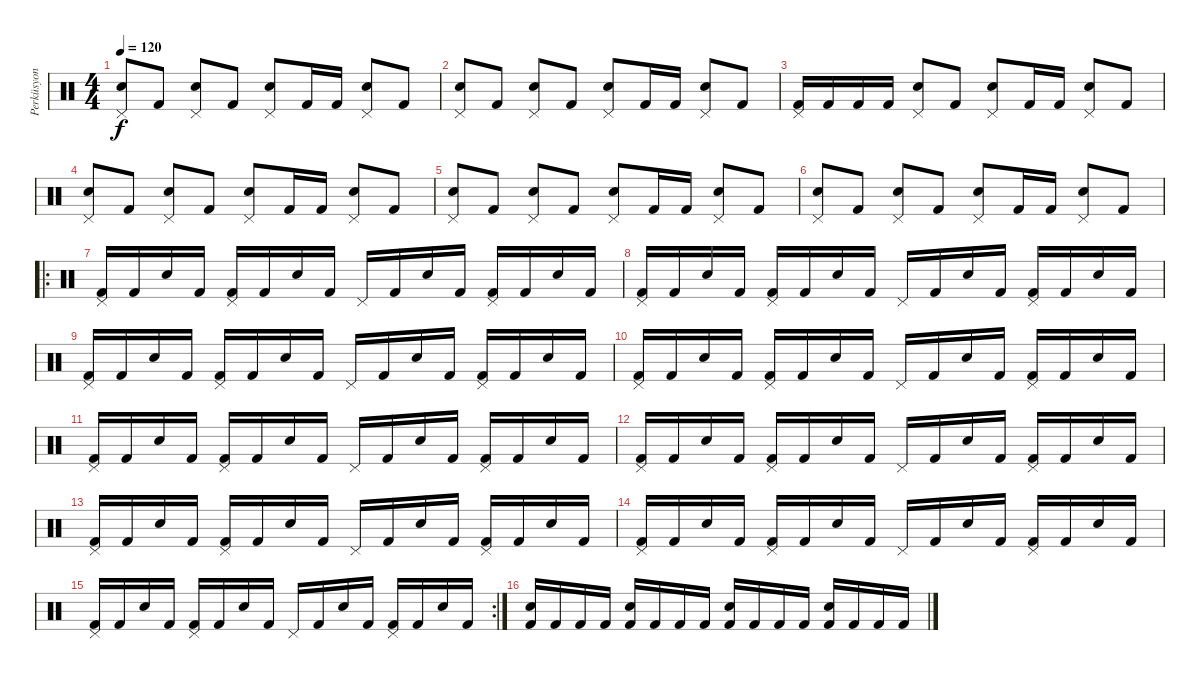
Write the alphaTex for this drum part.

\track ("Perküsyon" "Perküsyon") {instrument percussion}
\staff {score}
\articulation defaults
\ts (4 4)
\tempo 120
\clef neutral
\ks c
("Pedal Hi-Hat (hit)" "Electric Snare (hit)").8{dy f} "Kick (hit) 2".8 ("Pedal Hi-Hat (hit)" "Electric Snare (hit)").8 "Kick (hit) 2".8 ("Pedal Hi-Hat (hit)" "Electric Snare (hit)").8 "Kick (hit) 2".16 "Kick (hit) 2".16 ("Pedal Hi-Hat (hit)" "Electric Snare (hit)").8 "Kick (hit) 2".8 |
("Pedal Hi-Hat (hit)" "Electric Snare (hit)").8 "Kick (hit) 2".8 ("Pedal Hi-Hat (hit)" "Electric Snare (hit)").8 "Kick (hit) 2".8 ("Pedal Hi-Hat (hit)" "Electric Snare (hit)").8 "Kick (hit) 2".16 "Kick (hit) 2".16 ("Pedal Hi-Hat (hit)" "Electric Snare (hit)").8 "Kick (hit) 2".8 |
("Pedal Hi-Hat (hit)" "Kick (hit) 2").16 "Kick (hit) 2".16 "Kick (hit) 2".16 "Kick (hit) 2".16 ("Pedal Hi-Hat (hit)" "Electric Snare (hit)").8 "Kick (hit) 2".8 ("Pedal Hi-Hat (hit)" "Electric Snare (hit)").8 "Kick (hit) 2".16 "Kick (hit) 2".16 ("Pedal Hi-Hat (hit)" "Electric Snare (hit)").8 "Kick (hit) 2".8 |
("Pedal Hi-Hat (hit)" "Electric Snare (hit)").8 "Kick (hit) 2".8 ("Pedal Hi-Hat (hit)" "Electric Snare (hit)").8 "Kick (hit) 2".8 ("Pedal Hi-Hat (hit)" "Electric Snare (hit)").8 "Kick (hit) 2".16 "Kick (hit) 2".16 ("Pedal Hi-Hat (hit)" "Electric Snare (hit)").8 "Kick (hit) 2".8 |
("Pedal Hi-Hat (hit)" "Electric Snare (hit)").8 "Kick (hit) 2".8 ("Pedal Hi-Hat (hit)" "Electric Snare (hit)").8 "Kick (hit) 2".8 ("Pedal Hi-Hat (hit)" "Electric Snare (hit)").8 "Kick (hit) 2".16 "Kick (hit) 2".16 ("Pedal Hi-Hat (hit)" "Electric Snare (hit)").8 "Kick (hit) 2".8 |
("Pedal Hi-Hat (hit)" "Electric Snare (hit)").8 "Kick (hit) 2".8 ("Pedal Hi-Hat (hit)" "Electric Snare (hit)").8 "Kick (hit) 2".8 ("Pedal Hi-Hat (hit)" "Electric Snare (hit)").8 "Kick (hit) 2".16 "Kick (hit) 2".16 ("Pedal Hi-Hat (hit)" "Electric Snare (hit)").8 "Kick (hit) 2".8 |
\ro
("Pedal Hi-Hat (hit)" "Kick (hit) 2").16 "Kick (hit) 2".16 "Electric Snare (hit)".16 "Kick (hit) 2".16 ("Pedal Hi-Hat (hit)" "Kick (hit) 2").16 "Kick (hit) 2".16 "Electric Snare (hit)".16 "Kick (hit) 2".16 "Pedal Hi-Hat (hit)".16 "Kick (hit) 2".16 "Electric Snare (hit)".16 "Kick (hit) 2".16 ("Pedal Hi-Hat (hit)" "Kick (hit) 2").16 "Kick (hit) 2".16 "Electric Snare (hit)".16 "Kick (hit) 2".16 |
("Pedal Hi-Hat (hit)" "Kick (hit) 2").16 "Kick (hit) 2".16 "Electric Snare (hit)".16 "Kick (hit) 2".16 ("Pedal Hi-Hat (hit)" "Kick (hit) 2").16 "Kick (hit) 2".16 "Electric Snare (hit)".16 "Kick (hit) 2".16 "Pedal Hi-Hat (hit)".16 "Kick (hit) 2".16 "Electric Snare (hit)".16 "Kick (hit) 2".16 ("Pedal Hi-Hat (hit)" "Kick (hit) 2").16 "Kick (hit) 2".16 "Electric Snare (hit)".16 "Kick (hit) 2".16 |
("Pedal Hi-Hat (hit)" "Kick (hit) 2").16 "Kick (hit) 2".16 "Electric Snare (hit)".16 "Kick (hit) 2".16 ("Pedal Hi-Hat (hit)" "Kick (hit) 2").16 "Kick (hit) 2".16 "Electric Snare (hit)".16 "Kick (hit) 2".16 "Pedal Hi-Hat (hit)".16 "Kick (hit) 2".16 "Electric Snare (hit)".16 "Kick (hit) 2".16 ("Pedal Hi-Hat (hit)" "Kick (hit) 2").16 "Kick (hit) 2".16 "Electric Snare (hit)".16 "Kick (hit) 2".16 |
("Pedal Hi-Hat (hit)" "Kick (hit) 2").16 "Kick (hit) 2".16 "Electric Snare (hit)".16 "Kick (hit) 2".16 ("Pedal Hi-Hat (hit)" "Kick (hit) 2").16 "Kick (hit) 2".16 "Electric Snare (hit)".16 "Kick (hit) 2".16 "Pedal Hi-Hat (hit)".16 "Kick (hit) 2".16 "Electric Snare (hit)".16 "Kick (hit) 2".16 ("Pedal Hi-Hat (hit)" "Kick (hit) 2").16 "Kick (hit) 2".16 "Electric Snare (hit)".16 "Kick (hit) 2".16 |
("Pedal Hi-Hat (hit)" "Kick (hit) 2").16 "Kick (hit) 2".16 "Electric Snare (hit)".16 "Kick (hit) 2".16 ("Pedal Hi-Hat (hit)" "Kick (hit) 2").16 "Kick (hit) 2".16 "Electric Snare (hit)".16 "Kick (hit) 2".16 "Pedal Hi-Hat (hit)".16 "Kick (hit) 2".16 "Electric Snare (hit)".16 "Kick (hit) 2".16 ("Pedal Hi-Hat (hit)" "Kick (hit) 2").16 "Kick (hit) 2".16 "Electric Snare (hit)".16 "Kick (hit) 2".16 |
("Pedal Hi-Hat (hit)" "Kick (hit) 2").16 "Kick (hit) 2".16 "Electric Snare (hit)".16 "Kick (hit) 2".16 ("Pedal Hi-Hat (hit)" "Kick (hit) 2").16 "Kick (hit) 2".16 "Electric Snare (hit)".16 "Kick (hit) 2".16 "Pedal Hi-Hat (hit)".16 "Kick (hit) 2".16 "Electric Snare (hit)".16 "Kick (hit) 2".16 ("Pedal Hi-Hat (hit)" "Kick (hit) 2").16 "Kick (hit) 2".16 "Electric Snare (hit)".16 "Kick (hit) 2".16 |
("Pedal Hi-Hat (hit)" "Kick (hit) 2").16 "Kick (hit) 2".16 "Electric Snare (hit)".16 "Kick (hit) 2".16 ("Pedal Hi-Hat (hit)" "Kick (hit) 2").16 "Kick (hit) 2".16 "Electric Snare (hit)".16 "Kick (hit) 2".16 "Pedal Hi-Hat (hit)".16 "Kick (hit) 2".16 "Electric Snare (hit)".16 "Kick (hit) 2".16 ("Pedal Hi-Hat (hit)" "Kick (hit) 2").16 "Kick (hit) 2".16 "Electric Snare (hit)".16 "Kick (hit) 2".16 |
("Pedal Hi-Hat (hit)" "Kick (hit) 2").16 "Kick (hit) 2".16 "Electric Snare (hit)".16 "Kick (hit) 2".16 ("Pedal Hi-Hat (hit)" "Kick (hit) 2").16 "Kick (hit) 2".16 "Electric Snare (hit)".16 "Kick (hit) 2".16 "Pedal Hi-Hat (hit)".16 "Kick (hit) 2".16 "Electric Snare (hit)".16 "Kick (hit) 2".16 ("Pedal Hi-Hat (hit)" "Kick (hit) 2").16 "Kick (hit) 2".16 "Electric Snare (hit)".16 "Kick (hit) 2".16 |
\rc 2
("Pedal Hi-Hat (hit)" "Kick (hit) 2").16 "Kick (hit) 2".16 "Electric Snare (hit)".16 "Kick (hit) 2".16 ("Pedal Hi-Hat (hit)" "Kick (hit) 2").16 "Kick (hit) 2".16 "Electric Snare (hit)".16 "Kick (hit) 2".16 "Pedal Hi-Hat (hit)".16 "Kick (hit) 2".16 "Electric Snare (hit)".16 "Kick (hit) 2".16 ("Pedal Hi-Hat (hit)" "Kick (hit) 2").16 "Kick (hit) 2".16 "Electric Snare (hit)".16 "Kick (hit) 2".16 |
("Kick (hit) 2" "Electric Snare (hit)").16 "Kick (hit) 2".16 "Kick (hit) 2".16 "Kick (hit) 2".16 ("Kick (hit) 2" "Electric Snare (hit)").16 "Kick (hit) 2".16 "Kick (hit) 2".16 "Kick (hit) 2".16 ("Kick (hit) 2" "Electric Snare (hit)").16 "Kick (hit) 2".16 "Kick (hit) 2".16 "Kick (hit) 2".16 ("Kick (hit) 2" "Electric Snare (hit)").16 "Kick (hit) 2".16 "Kick (hit) 2".16 "Kick (hit) 2".16
